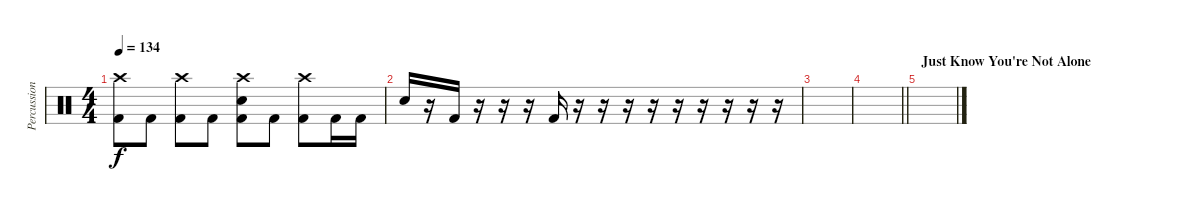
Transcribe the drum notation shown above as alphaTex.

\track ("Percussion" "Percussion") {instrument percussion}
\staff {score}
\articulation defaults
\ts (4 4)
\tempo 134
\clef neutral
\ks c
("Crash high (hit)" "Kick (hit) 2").8{dy f} "Kick (hit) 2".8 ("Crash high (hit)" "Kick (hit) 2").8 "Kick (hit) 2".8 ("Crash high (hit)" "Snare (hit) 2" "Kick (hit) 2").8 "Kick (hit) 2".8 ("Crash high (hit)" "Kick (hit) 2").8 "Kick (hit) 2".16 "Kick (hit) 2".16 |
"Snare (hit) 2".16 r.16 "Kick (hit) 2".16 r.16 r.16 r.16 "Kick (hit) 2".16 r.16 r.16 r.16 r.16 r.16 r.16 r.16 r.16 r.16 |
|
\barLineRight lightlight
|
\section ("" "Just Know You're Not Alone")
